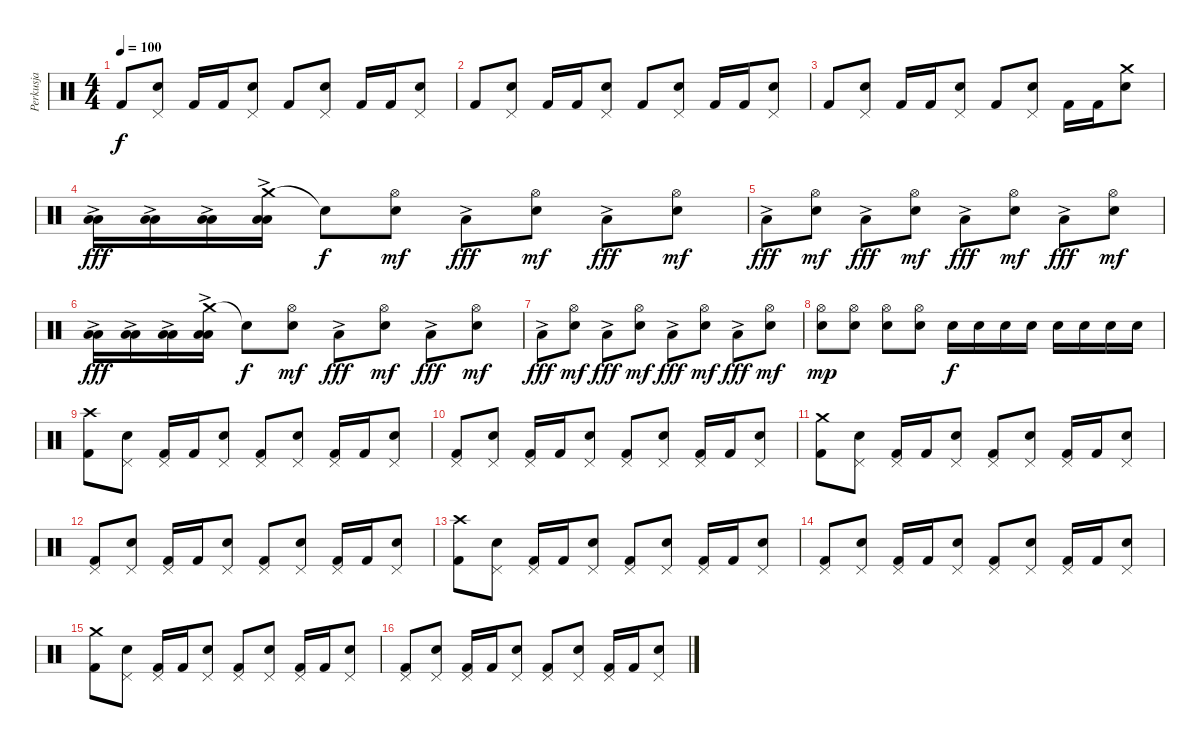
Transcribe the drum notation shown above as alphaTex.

\track ("Perkusja" "Perkusja") {instrument percussion}
\staff {score}
\articulation defaults
\ts (4 4)
\tempo 100
\clef neutral
\ks c "Kick (hit) 2".8{dy f}
("Pedal Hi-Hat (hit)" "Snare (hit) 2").8 "Kick (hit) 2".16 "Kick (hit) 2".16 ("Pedal Hi-Hat (hit)" "Snare (hit) 2").8 "Kick (hit) 2".8 ("Pedal Hi-Hat (hit)" "Snare (hit) 2").8 "Kick (hit) 2".16 "Kick (hit) 2".16 ("Pedal Hi-Hat (hit)" "Snare (hit) 2").8 |
"Kick (hit) 2".8 ("Pedal Hi-Hat (hit)" "Snare (hit) 2").8 "Kick (hit) 2".16 "Kick (hit) 2".16 ("Pedal Hi-Hat (hit)" "Snare (hit) 2").8 "Kick (hit) 2".8 ("Pedal Hi-Hat (hit)" "Snare (hit) 2").8 "Kick (hit) 2".16 "Kick (hit) 2".16 ("Pedal Hi-Hat (hit)" "Snare (hit) 2").8 |
"Kick (hit) 2".8 ("Pedal Hi-Hat (hit)" "Snare (hit) 2").8 "Kick (hit) 2".16 "Kick (hit) 2".16 ("Pedal Hi-Hat (hit)" "Snare (hit) 2").8 "Kick (hit) 2".8 ("Pedal Hi-Hat (hit)" "Snare (hit) 2").8 "Kick (hit) 2".16 "Kick (hit) 2".16 ("Crash medium (hit)" "Snare (hit) 2").8 |
("Low Tom (hit)"{ac} "Low Tom (hit)").16{dy fff} ("Low Tom (hit)"{ac} "Low Tom (hit)").16 ("Low Tom (hit)"{ac} "Low Tom (hit)").16 ("Crash medium (hit)" "Low Tom (hit)"{ac} "Low Tom (hit)").16 "Snare (hit)"{t}.8{dy f} ("Hi-Hat (open)" "Snare (hit) 2").8{dy mf} "Low Tom (hit)"{ac}.8{dy fff} ("Hi-Hat (open)" "Snare (hit) 2").8{dy mf} "Low Tom (hit)"{ac}.8{dy fff} ("Hi-Hat (open)" "Snare (hit) 2").8{dy mf} |
"Low Tom (hit)"{ac}.8{dy fff} ("Hi-Hat (open)" "Snare (hit) 2").8{dy mf} "Low Tom (hit)"{ac}.8{dy fff} ("Hi-Hat (open)" "Snare (hit) 2").8{dy mf} "Low Tom (hit)"{ac}.8{dy fff} ("Hi-Hat (open)" "Snare (hit) 2").8{dy mf} "Low Tom (hit)"{ac}.8{dy fff} ("Hi-Hat (open)" "Snare (hit) 2").8{dy mf} |
("Low Tom (hit)"{ac} "Low Tom (hit)").16{dy fff} ("Low Tom (hit)"{ac} "Low Tom (hit)").16 ("Low Tom (hit)"{ac} "Low Tom (hit)").16 ("Crash medium (hit)" "Low Tom (hit)"{ac} "Low Tom (hit)").16 "Snare (hit)"{t}.8{dy f} ("Hi-Hat (open)" "Snare (hit) 2").8{dy mf} "Low Tom (hit)"{ac}.8{dy fff} ("Hi-Hat (open)" "Snare (hit) 2").8{dy mf} "Low Tom (hit)"{ac}.8{dy fff} ("Hi-Hat (open)" "Snare (hit) 2").8{dy mf} |
"Low Tom (hit)"{ac}.8{dy fff} ("Hi-Hat (open)" "Snare (hit) 2").8{dy mf} "Low Tom (hit)"{ac}.8{dy fff} ("Hi-Hat (open)" "Snare (hit) 2").8{dy mf} "Low Tom (hit)"{ac}.8{dy fff} ("Hi-Hat (open)" "Snare (hit) 2").8{dy mf} "Low Tom (hit)"{ac}.8{dy fff} ("Hi-Hat (open)" "Snare (hit) 2").8{dy mf} |
("Hi-Hat (open)" "Snare (hit) 2").8{dy mp} ("Hi-Hat (open)" "Snare (hit) 2").8 ("Hi-Hat (open)" "Snare (hit) 2").8 ("Hi-Hat (open)" "Snare (hit) 2").8 "Snare (hit) 2".16{dy f} "Snare (hit) 2".16 "Snare (hit) 2".16 "Snare (hit) 2".16 "Snare (hit) 2".16 "Snare (hit) 2".16 "Snare (hit) 2".16 "Snare (hit) 2".16 |
("Crash high (hit)" "Kick (hit) 2").8 ("Pedal Hi-Hat (hit)" "Snare (hit) 2").8 ("Pedal Hi-Hat (hit)" "Kick (hit) 2").16 "Kick (hit) 2".16 ("Pedal Hi-Hat (hit)" "Snare (hit) 2").8 ("Pedal Hi-Hat (hit)" "Kick (hit) 2").8 ("Pedal Hi-Hat (hit)" "Snare (hit) 2").8 ("Pedal Hi-Hat (hit)" "Kick (hit) 2").16 "Kick (hit) 2".16 ("Pedal Hi-Hat (hit)" "Snare (hit) 2").8 |
("Pedal Hi-Hat (hit)" "Kick (hit) 2").8 ("Pedal Hi-Hat (hit)" "Snare (hit) 2").8 ("Pedal Hi-Hat (hit)" "Kick (hit) 2").16 "Kick (hit) 2".16 ("Pedal Hi-Hat (hit)" "Snare (hit) 2").8 ("Pedal Hi-Hat (hit)" "Kick (hit) 2").8 ("Pedal Hi-Hat (hit)" "Snare (hit) 2").8 ("Pedal Hi-Hat (hit)" "Kick (hit) 2").16 "Kick (hit) 2".16 ("Pedal Hi-Hat (hit)" "Snare (hit) 2").8 |
("Crash medium (hit)" "Kick (hit) 2").8 ("Pedal Hi-Hat (hit)" "Snare (hit) 2").8 ("Pedal Hi-Hat (hit)" "Kick (hit) 2").16 "Kick (hit) 2".16 ("Pedal Hi-Hat (hit)" "Snare (hit) 2").8 ("Pedal Hi-Hat (hit)" "Kick (hit) 2").8 ("Pedal Hi-Hat (hit)" "Snare (hit) 2").8 ("Pedal Hi-Hat (hit)" "Kick (hit) 2").16 "Kick (hit) 2".16 ("Pedal Hi-Hat (hit)" "Snare (hit) 2").8 |
("Pedal Hi-Hat (hit)" "Kick (hit) 2").8 ("Pedal Hi-Hat (hit)" "Snare (hit) 2").8 ("Pedal Hi-Hat (hit)" "Kick (hit) 2").16 "Kick (hit) 2".16 ("Pedal Hi-Hat (hit)" "Snare (hit) 2").8 ("Pedal Hi-Hat (hit)" "Kick (hit) 2").8 ("Pedal Hi-Hat (hit)" "Snare (hit) 2").8 ("Pedal Hi-Hat (hit)" "Kick (hit) 2").16 "Kick (hit) 2".16 ("Pedal Hi-Hat (hit)" "Snare (hit) 2").8 |
("Crash high (hit)" "Kick (hit) 2").8 ("Pedal Hi-Hat (hit)" "Snare (hit) 2").8 ("Pedal Hi-Hat (hit)" "Kick (hit) 2").16 "Kick (hit) 2".16 ("Pedal Hi-Hat (hit)" "Snare (hit) 2").8 ("Pedal Hi-Hat (hit)" "Kick (hit) 2").8 ("Pedal Hi-Hat (hit)" "Snare (hit) 2").8 ("Pedal Hi-Hat (hit)" "Kick (hit) 2").16 "Kick (hit) 2".16 ("Pedal Hi-Hat (hit)" "Snare (hit) 2").8 |
("Pedal Hi-Hat (hit)" "Kick (hit) 2").8 ("Pedal Hi-Hat (hit)" "Snare (hit) 2").8 ("Pedal Hi-Hat (hit)" "Kick (hit) 2").16 "Kick (hit) 2".16 ("Pedal Hi-Hat (hit)" "Snare (hit) 2").8 ("Pedal Hi-Hat (hit)" "Kick (hit) 2").8 ("Pedal Hi-Hat (hit)" "Snare (hit) 2").8 ("Pedal Hi-Hat (hit)" "Kick (hit) 2").16 "Kick (hit) 2".16 ("Pedal Hi-Hat (hit)" "Snare (hit) 2").8 |
("Crash medium (hit)" "Kick (hit) 2").8 ("Pedal Hi-Hat (hit)" "Snare (hit) 2").8 ("Pedal Hi-Hat (hit)" "Kick (hit) 2").16 "Kick (hit) 2".16 ("Pedal Hi-Hat (hit)" "Snare (hit) 2").8 ("Pedal Hi-Hat (hit)" "Kick (hit) 2").8 ("Pedal Hi-Hat (hit)" "Snare (hit) 2").8 ("Pedal Hi-Hat (hit)" "Kick (hit) 2").16 "Kick (hit) 2".16 ("Pedal Hi-Hat (hit)" "Snare (hit) 2").8 |
("Pedal Hi-Hat (hit)" "Kick (hit) 2").8 ("Pedal Hi-Hat (hit)" "Snare (hit) 2").8 ("Pedal Hi-Hat (hit)" "Kick (hit) 2").16 "Kick (hit) 2".16 ("Pedal Hi-Hat (hit)" "Snare (hit) 2").8 ("Pedal Hi-Hat (hit)" "Kick (hit) 2").8 ("Pedal Hi-Hat (hit)" "Snare (hit) 2").8 ("Pedal Hi-Hat (hit)" "Kick (hit) 2").16 "Kick (hit) 2".16 ("Pedal Hi-Hat (hit)" "Snare (hit) 2").8
